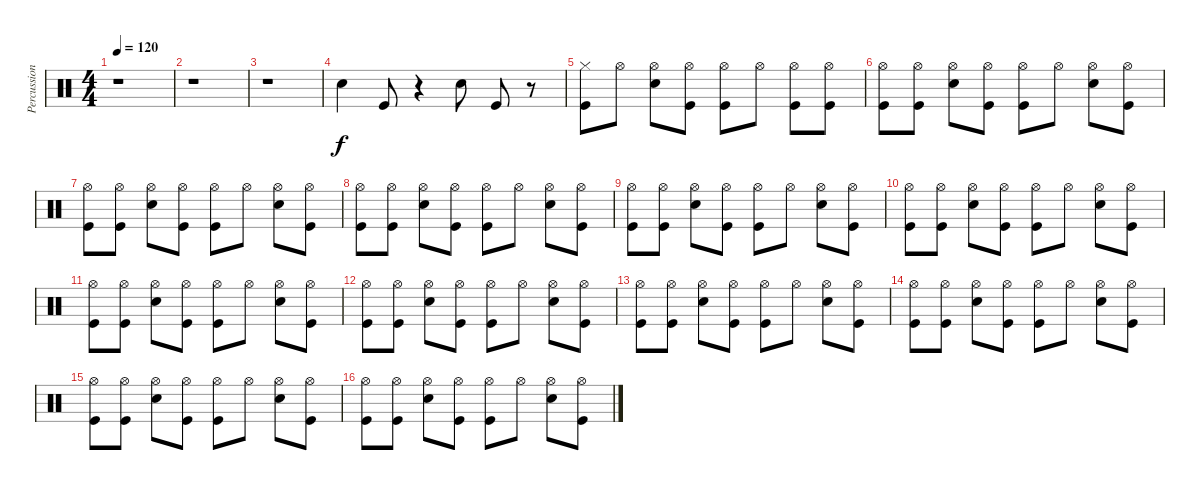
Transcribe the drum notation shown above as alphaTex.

\track ("Percussion" "Percussion") {instrument percussion}
\staff {score}
\articulation defaults
\ts (4 4)
\tempo 120
\clef neutral
\ks c
r.1{dy f} |
r.1 |
r.1 |
"Snare (hit) 2".4 "Kick (hit)".8 r.4 "Snare (hit) 2".8 "Kick (hit)".8 r.8 |
("Hi-Hat (closed)" "Kick (hit)").8 "Hi-Hat (open)".8 ("Hi-Hat (open)" "Snare (hit) 2").8 ("Hi-Hat (open)" "Kick (hit)").8 ("Hi-Hat (open)" "Kick (hit)").8 "Hi-Hat (open)".8 ("Hi-Hat (open)" "Kick (hit)").8 ("Hi-Hat (open)" "Kick (hit)").8 |
("Hi-Hat (open)" "Kick (hit)").8 ("Hi-Hat (open)" "Kick (hit)").8 ("Hi-Hat (open)" "Snare (hit) 2").8 ("Hi-Hat (open)" "Kick (hit)").8 ("Hi-Hat (open)" "Kick (hit)").8 "Hi-Hat (open)".8 ("Snare (hit) 2" "Hi-Hat (open)").8 ("Hi-Hat (open)" "Kick (hit)").8 |
("Hi-Hat (open)" "Kick (hit)").8 ("Hi-Hat (open)" "Kick (hit)").8 ("Hi-Hat (open)" "Snare (hit) 2").8 ("Hi-Hat (open)" "Kick (hit)").8 ("Hi-Hat (open)" "Kick (hit)").8 "Hi-Hat (open)".8 ("Snare (hit) 2" "Hi-Hat (open)").8 ("Hi-Hat (open)" "Kick (hit)").8 |
("Hi-Hat (open)" "Kick (hit)").8 ("Hi-Hat (open)" "Kick (hit)").8 ("Hi-Hat (open)" "Snare (hit) 2").8 ("Hi-Hat (open)" "Kick (hit)").8 ("Hi-Hat (open)" "Kick (hit)").8 "Hi-Hat (open)".8 ("Snare (hit) 2" "Hi-Hat (open)").8 ("Hi-Hat (open)" "Kick (hit)").8 |
("Hi-Hat (open)" "Kick (hit)").8 ("Hi-Hat (open)" "Kick (hit)").8 ("Hi-Hat (open)" "Snare (hit) 2").8 ("Hi-Hat (open)" "Kick (hit)").8 ("Hi-Hat (open)" "Kick (hit)").8 "Hi-Hat (open)".8 ("Snare (hit) 2" "Hi-Hat (open)").8 ("Hi-Hat (open)" "Kick (hit)").8 |
("Hi-Hat (open)" "Kick (hit)").8 ("Hi-Hat (open)" "Kick (hit)").8 ("Hi-Hat (open)" "Snare (hit) 2").8 ("Hi-Hat (open)" "Kick (hit)").8 ("Hi-Hat (open)" "Kick (hit)").8 "Hi-Hat (open)".8 ("Snare (hit) 2" "Hi-Hat (open)").8 ("Hi-Hat (open)" "Kick (hit)").8 |
("Hi-Hat (open)" "Kick (hit)").8 ("Hi-Hat (open)" "Kick (hit)").8 ("Hi-Hat (open)" "Snare (hit) 2").8 ("Hi-Hat (open)" "Kick (hit)").8 ("Hi-Hat (open)" "Kick (hit)").8 "Hi-Hat (open)".8 ("Snare (hit) 2" "Hi-Hat (open)").8 ("Hi-Hat (open)" "Kick (hit)").8 |
("Hi-Hat (open)" "Kick (hit)").8 ("Hi-Hat (open)" "Kick (hit)").8 ("Hi-Hat (open)" "Snare (hit) 2").8 ("Hi-Hat (open)" "Kick (hit)").8 ("Hi-Hat (open)" "Kick (hit)").8 "Hi-Hat (open)".8 ("Snare (hit) 2" "Hi-Hat (open)").8 ("Hi-Hat (open)" "Kick (hit)").8 |
("Hi-Hat (open)" "Kick (hit)").8 ("Hi-Hat (open)" "Kick (hit)").8 ("Hi-Hat (open)" "Snare (hit) 2").8 ("Hi-Hat (open)" "Kick (hit)").8 ("Hi-Hat (open)" "Kick (hit)").8 "Hi-Hat (open)".8 ("Snare (hit) 2" "Hi-Hat (open)").8 ("Hi-Hat (open)" "Kick (hit)").8 |
("Hi-Hat (open)" "Kick (hit)").8 ("Hi-Hat (open)" "Kick (hit)").8 ("Hi-Hat (open)" "Snare (hit) 2").8 ("Hi-Hat (open)" "Kick (hit)").8 ("Hi-Hat (open)" "Kick (hit)").8 "Hi-Hat (open)".8 ("Snare (hit) 2" "Hi-Hat (open)").8 ("Hi-Hat (open)" "Kick (hit)").8 |
("Hi-Hat (open)" "Kick (hit)").8 ("Hi-Hat (open)" "Kick (hit)").8 ("Hi-Hat (open)" "Snare (hit) 2").8 ("Hi-Hat (open)" "Kick (hit)").8 ("Hi-Hat (open)" "Kick (hit)").8 "Hi-Hat (open)".8 ("Snare (hit) 2" "Hi-Hat (open)").8 ("Hi-Hat (open)" "Kick (hit)").8 |
("Hi-Hat (open)" "Kick (hit)").8 ("Hi-Hat (open)" "Kick (hit)").8 ("Hi-Hat (open)" "Snare (hit) 2").8 ("Hi-Hat (open)" "Kick (hit)").8 ("Hi-Hat (open)" "Kick (hit)").8 "Hi-Hat (open)".8 ("Snare (hit) 2" "Hi-Hat (open)").8 ("Hi-Hat (open)" "Kick (hit)").8
